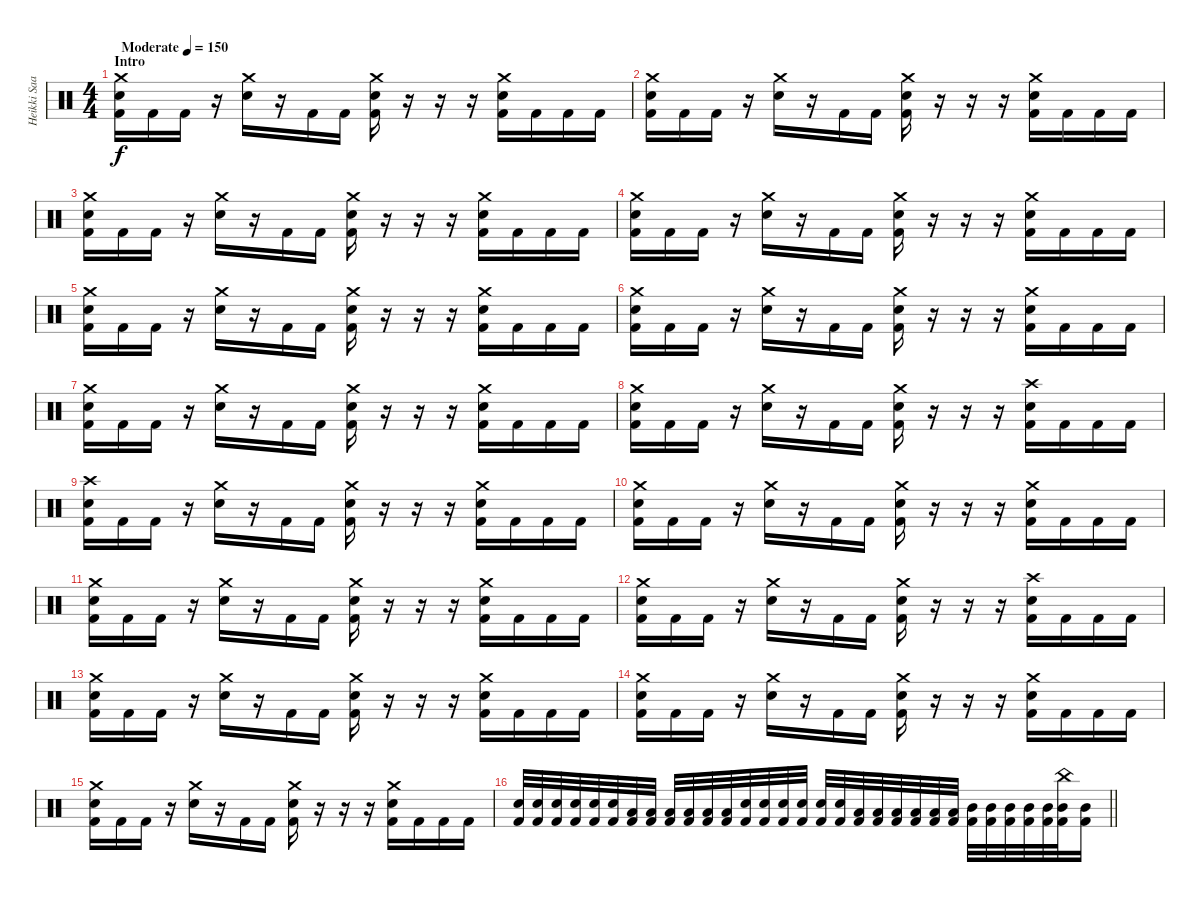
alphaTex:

\track ("Heikki Saari" "Heikki Saa") {instrument percussion}
\staff {score}
\articulation defaults
\ts (4 4)
\section ("" "Intro")
\tempo (150 "Moderate")
\clef neutral
\ks c
("Crash medium (hit)" "Electric Snare (hit)" "Kick (hit) 2").16{dy f volume 9} "Kick (hit) 2".16 "Kick (hit) 2".16 r.16 ("Crash medium (hit)" "Electric Snare (hit)").16 r.16 "Kick (hit) 2".16 "Kick (hit) 2".16 ("Crash medium (hit)" "Electric Snare (hit)" "Kick (hit) 2").16 r.16 r.16 r.16 ("Crash medium (hit)" "Electric Snare (hit)" "Kick (hit) 2").16 "Kick (hit) 2".16 "Kick (hit) 2".16 "Kick (hit) 2".16 |
("Crash medium (hit)" "Electric Snare (hit)" "Kick (hit) 2").16{volume 14} "Kick (hit) 2".16 "Kick (hit) 2".16 r.16 ("Crash medium (hit)" "Electric Snare (hit)").16 r.16 "Kick (hit) 2".16 "Kick (hit) 2".16 ("Crash medium (hit)" "Electric Snare (hit)" "Kick (hit) 2").16 r.16 r.16 r.16 ("Crash medium (hit)" "Electric Snare (hit)" "Kick (hit) 2").16 "Kick (hit) 2".16 "Kick (hit) 2".16 "Kick (hit) 2".16 |
("Crash medium (hit)" "Electric Snare (hit)" "Kick (hit) 2").16 "Kick (hit) 2".16 "Kick (hit) 2".16 r.16 ("Crash medium (hit)" "Electric Snare (hit)").16 r.16 "Kick (hit) 2".16 "Kick (hit) 2".16 ("Crash medium (hit)" "Electric Snare (hit)" "Kick (hit) 2").16 r.16 r.16 r.16 ("Crash medium (hit)" "Electric Snare (hit)" "Kick (hit) 2").16 "Kick (hit) 2".16 "Kick (hit) 2".16 "Kick (hit) 2".16 |
("Crash medium (hit)" "Electric Snare (hit)" "Kick (hit) 2").16 "Kick (hit) 2".16 "Kick (hit) 2".16 r.16 ("Crash medium (hit)" "Electric Snare (hit)").16 r.16 "Kick (hit) 2".16 "Kick (hit) 2".16 ("Crash medium (hit)" "Electric Snare (hit)" "Kick (hit) 2").16 r.16 r.16 r.16 ("Crash medium (hit)" "Electric Snare (hit)" "Kick (hit) 2").16 "Kick (hit) 2".16 "Kick (hit) 2".16 "Kick (hit) 2".16 |
("Crash medium (hit)" "Electric Snare (hit)" "Kick (hit) 2").16 "Kick (hit) 2".16 "Kick (hit) 2".16 r.16 ("Crash medium (hit)" "Electric Snare (hit)").16 r.16 "Kick (hit) 2".16 "Kick (hit) 2".16 ("Crash medium (hit)" "Electric Snare (hit)" "Kick (hit) 2").16 r.16 r.16 r.16 ("Crash medium (hit)" "Electric Snare (hit)" "Kick (hit) 2").16 "Kick (hit) 2".16 "Kick (hit) 2".16 "Kick (hit) 2".16 |
("Crash medium (hit)" "Electric Snare (hit)" "Kick (hit) 2").16 "Kick (hit) 2".16 "Kick (hit) 2".16 r.16 ("Crash medium (hit)" "Electric Snare (hit)").16 r.16 "Kick (hit) 2".16 "Kick (hit) 2".16 ("Crash medium (hit)" "Electric Snare (hit)" "Kick (hit) 2").16 r.16 r.16 r.16 ("Crash medium (hit)" "Electric Snare (hit)" "Kick (hit) 2").16 "Kick (hit) 2".16 "Kick (hit) 2".16 "Kick (hit) 2".16 |
("Crash medium (hit)" "Electric Snare (hit)" "Kick (hit) 2").16 "Kick (hit) 2".16 "Kick (hit) 2".16 r.16 ("Crash medium (hit)" "Electric Snare (hit)").16 r.16 "Kick (hit) 2".16 "Kick (hit) 2".16 ("Crash medium (hit)" "Electric Snare (hit)" "Kick (hit) 2").16 r.16 r.16 r.16 ("Crash medium (hit)" "Electric Snare (hit)" "Kick (hit) 2").16 "Kick (hit) 2".16 "Kick (hit) 2".16 "Kick (hit) 2".16 |
("Crash medium (hit)" "Electric Snare (hit)" "Kick (hit) 2").16 "Kick (hit) 2".16 "Kick (hit) 2".16 r.16 ("Crash medium (hit)" "Electric Snare (hit)").16 r.16 "Kick (hit) 2".16 "Kick (hit) 2".16 ("Crash medium (hit)" "Electric Snare (hit)" "Kick (hit) 2").16 r.16 r.16 r.16 ("Crash high (hit)" "Electric Snare (hit)" "Kick (hit) 2").16 "Kick (hit) 2".16 "Kick (hit) 2".16 "Kick (hit) 2".16 |
("Crash high (hit)" "Electric Snare (hit)" "Kick (hit) 2").16 "Kick (hit) 2".16 "Kick (hit) 2".16 r.16 ("Crash medium (hit)" "Electric Snare (hit)").16 r.16 "Kick (hit) 2".16 "Kick (hit) 2".16 ("Crash medium (hit)" "Electric Snare (hit)" "Kick (hit) 2").16 r.16 r.16 r.16 ("Crash medium (hit)" "Electric Snare (hit)" "Kick (hit) 2").16 "Kick (hit) 2".16 "Kick (hit) 2".16 "Kick (hit) 2".16 |
("Crash medium (hit)" "Electric Snare (hit)" "Kick (hit) 2").16 "Kick (hit) 2".16 "Kick (hit) 2".16 r.16 ("Crash medium (hit)" "Electric Snare (hit)").16 r.16 "Kick (hit) 2".16 "Kick (hit) 2".16 ("Crash medium (hit)" "Electric Snare (hit)" "Kick (hit) 2").16 r.16 r.16 r.16 ("Crash medium (hit)" "Electric Snare (hit)" "Kick (hit) 2").16 "Kick (hit) 2".16 "Kick (hit) 2".16 "Kick (hit) 2".16 |
("Crash medium (hit)" "Electric Snare (hit)" "Kick (hit) 2").16 "Kick (hit) 2".16 "Kick (hit) 2".16 r.16 ("Crash medium (hit)" "Electric Snare (hit)").16 r.16 "Kick (hit) 2".16 "Kick (hit) 2".16 ("Crash medium (hit)" "Electric Snare (hit)" "Kick (hit) 2").16 r.16 r.16 r.16 ("Crash medium (hit)" "Electric Snare (hit)" "Kick (hit) 2").16 "Kick (hit) 2".16 "Kick (hit) 2".16 "Kick (hit) 2".16 |
("Crash medium (hit)" "Electric Snare (hit)" "Kick (hit) 2").16 "Kick (hit) 2".16 "Kick (hit) 2".16 r.16 ("Crash medium (hit)" "Electric Snare (hit)").16 r.16 "Kick (hit) 2".16 "Kick (hit) 2".16 ("Crash medium (hit)" "Electric Snare (hit)" "Kick (hit) 2").16 r.16 r.16 r.16 ("Crash high (hit)" "Electric Snare (hit)" "Kick (hit) 2").16 "Kick (hit) 2".16 "Kick (hit) 2".16 "Kick (hit) 2".16 |
("Crash medium (hit)" "Electric Snare (hit)" "Kick (hit) 2").16 "Kick (hit) 2".16 "Kick (hit) 2".16 r.16 ("Crash medium (hit)" "Electric Snare (hit)").16 r.16 "Kick (hit) 2".16 "Kick (hit) 2".16 ("Crash medium (hit)" "Electric Snare (hit)" "Kick (hit) 2").16 r.16 r.16 r.16 ("Crash medium (hit)" "Electric Snare (hit)" "Kick (hit) 2").16 "Kick (hit) 2".16 "Kick (hit) 2".16 "Kick (hit) 2".16 |
("Crash medium (hit)" "Electric Snare (hit)" "Kick (hit) 2").16 "Kick (hit) 2".16 "Kick (hit) 2".16 r.16 ("Crash medium (hit)" "Electric Snare (hit)").16 r.16 "Kick (hit) 2".16 "Kick (hit) 2".16 ("Crash medium (hit)" "Electric Snare (hit)" "Kick (hit) 2").16 r.16 r.16 r.16 ("Crash medium (hit)" "Electric Snare (hit)" "Kick (hit) 2").16 "Kick (hit) 2".16 "Kick (hit) 2".16 "Kick (hit) 2".16 |
("Crash medium (hit)" "Electric Snare (hit)" "Kick (hit) 2").16 "Kick (hit) 2".16 "Kick (hit) 2".16 r.16 ("Crash medium (hit)" "Electric Snare (hit)").16 r.16 "Kick (hit) 2".16 "Kick (hit) 2".16 ("Crash medium (hit)" "Electric Snare (hit)" "Kick (hit) 2").16 r.16 r.16 r.16 ("Crash medium (hit)" "Electric Snare (hit)" "Kick (hit) 2").16 "Kick (hit) 2".16 "Kick (hit) 2".16 "Kick (hit) 2".16 |
\barLineRight lightlight
("Snare (hit) 2" "Kick (hit) 2").32 ("Snare (hit) 2" "Kick (hit) 2").32 ("Snare (hit) 2" "Kick (hit) 2").32 ("Snare (hit) 2" "Kick (hit) 2").32 ("Snare (hit) 2" "Kick (hit) 2").32 ("Snare (hit) 2" "Kick (hit) 2").32 ("Low Tom (hit)" "Kick (hit) 2").32 ("Low Tom (hit)" "Kick (hit) 2").32 ("Low Tom (hit)" "Kick (hit) 2").32 ("Low Tom (hit)" "Kick (hit) 2").32 ("Low Tom (hit)" "Kick (hit) 2").32 ("Low Tom (hit)" "Kick (hit) 2").32 ("Snare (hit) 2" "Kick (hit) 2").32 ("Snare (hit) 2" "Kick (hit) 2").32 ("Snare (hit) 2" "Kick (hit) 2").32 ("Snare (hit) 2" "Kick (hit) 2").32 ("Snare (hit) 2" "Kick (hit) 2").32 ("Snare (hit) 2" "Kick (hit) 2").32 ("Low Tom (hit)" "Kick (hit) 2").32 ("Low Tom (hit)" "Kick (hit) 2").32 ("Low Tom (hit)" "Kick (hit) 2").32 ("Low Tom (hit)" "Kick (hit) 2").32 ("Low Tom (hit)" "Kick (hit) 2").32 ("Low Tom (hit)" "Kick (hit) 2").32 ("Mid Tom (hit)" "Kick (hit) 2").32 ("Mid Tom (hit)" "Kick (hit) 2").32 ("Mid Tom (hit)" "Kick (hit) 2").32 ("Mid Tom (hit)" "Kick (hit) 2").32 ("Mid Tom (hit)" "Kick (hit) 2").32 ("Mid Tom (hit)" "China (hit)" "Kick (hit) 2").32 ("Mid Tom (hit)" "Kick (hit) 2").16
